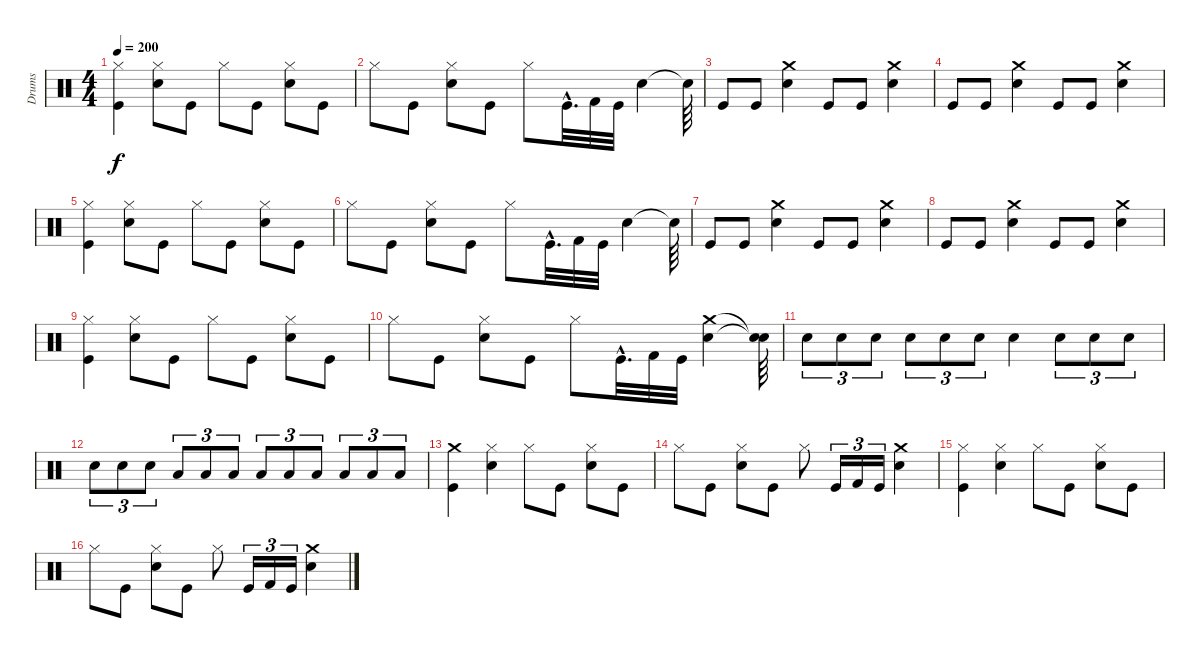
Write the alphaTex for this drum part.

\track ("Drums" "Drums") {instrument percussion}
\staff {score}
\articulation defaults
\ts (4 4)
\tempo 200
\clef neutral
\ks c
("Hi-Hat (closed)" "Kick (hit)").4{dy f} ("Hi-Hat (closed)" "Snare (hit) 2").8 "Kick (hit)".8 "Hi-Hat (closed)".8 "Kick (hit)".8 ("Snare (hit) 2" "Hi-Hat (closed)").8 "Kick (hit)".8 |
"Hi-Hat (closed)".8 "Kick (hit)".8 ("Snare (hit) 2" "Hi-Hat (closed)").8 "Kick (hit)".8 "Hi-Hat (closed)".8 "Kick (hit)"{hac}.32{d} "Kick (hit) 2".32 "Kick (hit)".32 "Snare (hit) 2".4 "Snare (hit)"{t}.64 |
"Kick (hit)".8 "Kick (hit)".8 ("Crash medium (hit)" "Snare (hit) 2").4 "Kick (hit)".8 "Kick (hit)".8 ("Snare (hit) 2" "Crash medium (hit)").4 |
"Kick (hit)".8 "Kick (hit)".8 ("Snare (hit) 2" "Crash medium (hit)").4 "Kick (hit)".8 "Kick (hit)".8 ("Snare (hit) 2" "Crash medium (hit)").4 |
("Hi-Hat (closed)" "Kick (hit)").4 ("Snare (hit) 2" "Hi-Hat (closed)").8 "Kick (hit)".8 "Hi-Hat (closed)".8 "Kick (hit)".8 ("Snare (hit) 2" "Hi-Hat (closed)").8 "Kick (hit)".8 |
"Hi-Hat (closed)".8 "Kick (hit)".8 ("Snare (hit) 2" "Hi-Hat (closed)").8 "Kick (hit)".8 "Hi-Hat (closed)".8 "Kick (hit)"{hac}.32{d} "Kick (hit) 2".32 "Kick (hit)".32 "Snare (hit) 2".4 "Snare (hit)"{t}.64 |
"Kick (hit)".8 "Kick (hit)".8 ("Crash medium (hit)" "Snare (hit) 2").4 "Kick (hit)".8 "Kick (hit)".8 ("Snare (hit) 2" "Crash medium (hit)").4 |
"Kick (hit)".8 "Kick (hit)".8 ("Snare (hit) 2" "Crash medium (hit)").4 "Kick (hit)".8 "Kick (hit)".8 ("Snare (hit) 2" "Crash medium (hit)").4 |
("Hi-Hat (closed)" "Kick (hit)").4 ("Snare (hit) 2" "Hi-Hat (closed)").8 "Kick (hit)".8 "Hi-Hat (closed)".8 "Kick (hit)".8 ("Snare (hit) 2" "Hi-Hat (closed)").8 "Kick (hit)".8 |
"Hi-Hat (closed)".8 "Kick (hit)".8 ("Snare (hit) 2" "Hi-Hat (closed)").8 "Kick (hit)".8 "Hi-Hat (closed)".8 "Kick (hit)"{hac}.32{d} "Kick (hit) 2".32 "Kick (hit)".32 ("Crash medium (hit)" "Snare (hit) 2").4 ("Snare (hit)"{t} "Snare (hit)"{t}).64 |
"Snare (hit) 2".8{tu (3 2)} "Snare (hit) 2".8{tu (3 2)} "Snare (hit) 2".8{tu (3 2)} "Snare (hit) 2".8{tu (3 2)} "Snare (hit) 2".8{tu (3 2)} "Snare (hit) 2".8{tu (3 2)} "Snare (hit) 2".4 "Snare (hit) 2".8{tu (3 2)} "Snare (hit) 2".8{tu (3 2)} "Snare (hit) 2".8{tu (3 2)} |
"Snare (hit) 2".8{tu (3 2)} "Snare (hit) 2".8{tu (3 2)} "Snare (hit) 2".8{tu (3 2)} "Low Tom (hit)".8{tu (3 2)} "Low Tom (hit)".8{tu (3 2)} "Low Tom (hit)".8{tu (3 2)} "Low Tom (hit)".8{tu (3 2)} "Low Tom (hit)".8{tu (3 2)} "Low Tom (hit)".8{tu (3 2)} "Low Tom (hit)".8{tu (3 2)} "Low Tom (hit)".8{tu (3 2)} "Low Tom (hit)".8{tu (3 2)} |
("Crash medium (hit)" "Kick (hit)").4 ("Hi-Hat (closed)" "Snare (hit) 2").4 "Hi-Hat (closed)".8 "Kick (hit)".8 ("Snare (hit) 2" "Hi-Hat (closed)").8 "Kick (hit)".8 |
"Hi-Hat (closed)".8 "Kick (hit)".8 ("Snare (hit) 2" "Hi-Hat (closed)").8 "Kick (hit)".8 "Hi-Hat (closed)".8 "Kick (hit)".16{tu (3 2)} "Kick (hit) 2".16{tu (3 2)} "Kick (hit)".16{tu (3 2)} ("Crash medium (hit)" "Snare (hit) 2").4 |
("Hi-Hat (closed)" "Kick (hit)").4 ("Snare (hit) 2" "Hi-Hat (closed)").4 "Hi-Hat (closed)".8 "Kick (hit)".8 ("Snare (hit) 2" "Hi-Hat (closed)").8 "Kick (hit)".8 |
"Hi-Hat (closed)".8 "Kick (hit)".8 ("Snare (hit) 2" "Hi-Hat (closed)").8 "Kick (hit)".8 "Hi-Hat (closed)".8 "Kick (hit)".16{tu (3 2)} "Kick (hit) 2".16{tu (3 2)} "Kick (hit)".16{tu (3 2)} ("Crash medium (hit)" "Snare (hit) 2").4
